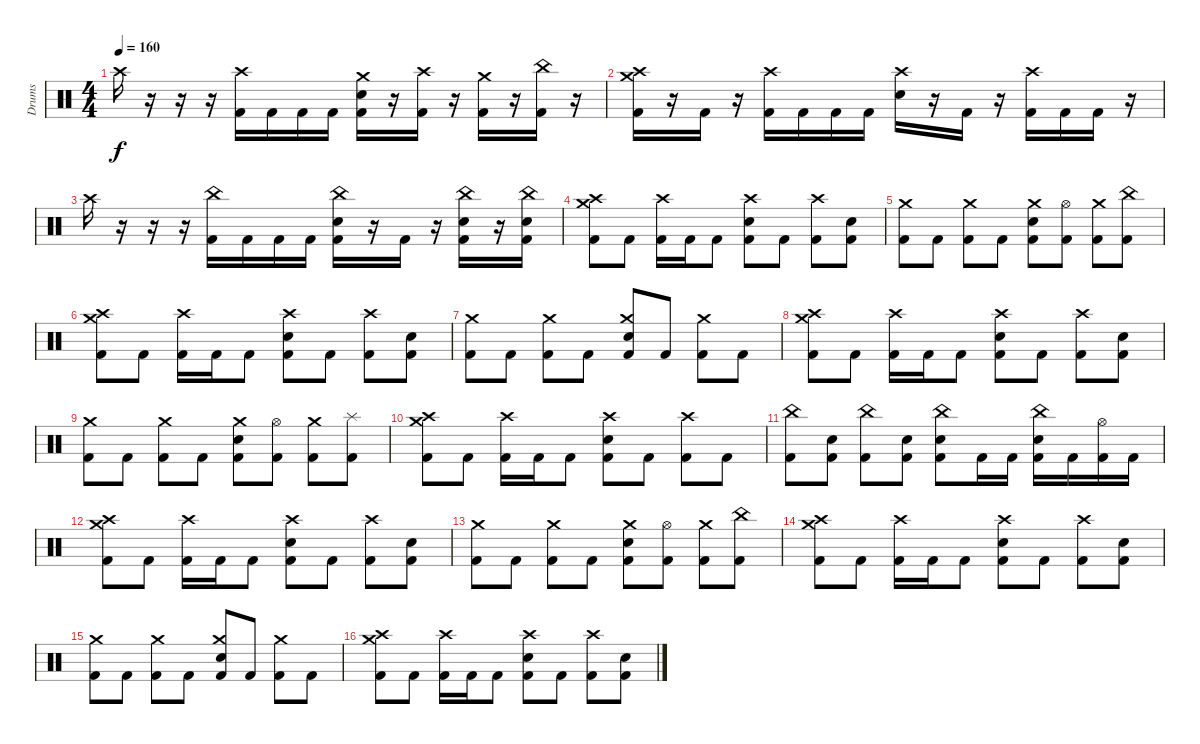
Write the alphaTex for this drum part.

\track ("Drums" "Drums") {instrument percussion}
\staff {score}
\articulation defaults
\ts (4 4)
\tempo 160
\clef neutral
\ks c "Crash high (hit)".16{dy f}
r.16 r.16 r.16 ("Crash high (hit)" "Kick (hit) 2").16 "Kick (hit) 2".16 "Kick (hit) 2".16 "Kick (hit) 2".16 ("Crash medium (hit)" "Electric Snare (hit)" "Kick (hit) 2").16 r.16 ("Crash high (hit)" "Kick (hit) 2").16 r.16 ("Crash medium (hit)" "Kick (hit) 2").16 r.16 ("China (hit)" "Kick (hit) 2").16 r.16 |
("Crash high (hit)" "Crash medium (hit)" "Kick (hit) 2").16 r.16 "Kick (hit) 2".16 r.16 ("Crash high (hit)" "Kick (hit) 2").16 "Kick (hit) 2".16 "Kick (hit) 2".16 "Kick (hit) 2".16 ("Crash high (hit)" "Electric Snare (hit)").16 r.16 "Kick (hit) 2".16 r.16 ("Crash high (hit)" "Kick (hit) 2").16 "Kick (hit) 2".16 "Kick (hit) 2".16 r.16 |
"Crash high (hit)".16 r.16 r.16 r.16 ("China (hit)" "Kick (hit) 2").16 "Kick (hit) 2".16 "Kick (hit) 2".16 "Kick (hit) 2".16 ("China (hit)" "Electric Snare (hit)" "Kick (hit) 2").16 r.16 "Kick (hit) 2".16 r.16 ("China (hit)" "Electric Snare (hit)" "Kick (hit) 2").16 r.16 ("China (hit)" "Electric Snare (hit)" "Kick (hit) 2").16 |
("Crash high (hit)" "Crash medium (hit)" "Kick (hit) 2").8 "Kick (hit) 2".8 ("Crash high (hit)" "Kick (hit) 2").16 "Kick (hit) 2".16 "Kick (hit) 2".8 ("Crash high (hit)" "Electric Snare (hit)" "Kick (hit) 2").8 "Kick (hit) 2".8 ("Crash high (hit)" "Kick (hit) 2").8 ("Electric Snare (hit)" "Kick (hit) 2").8 |
("Crash medium (hit)" "Kick (hit) 2").8 "Kick (hit) 2".8 ("Crash medium (hit)" "Kick (hit) 2").8 "Kick (hit) 2".8 ("Crash medium (hit)" "Electric Snare (hit)" "Kick (hit) 2").8 ("Hi-Hat (open)" "Kick (hit) 2").8 ("Crash medium (hit)" "Kick (hit) 2").8 ("China (hit)" "Kick (hit) 2").8 |
("Crash high (hit)" "Crash medium (hit)" "Kick (hit) 2").8 "Kick (hit) 2".8 ("Crash high (hit)" "Kick (hit) 2").16 "Kick (hit) 2".16 "Kick (hit) 2".8 ("Crash high (hit)" "Electric Snare (hit)" "Kick (hit) 2").8 "Kick (hit) 2".8 ("Crash high (hit)" "Kick (hit) 2").8 ("Electric Snare (hit)" "Kick (hit) 2").8 |
("Crash medium (hit)" "Kick (hit) 2").8 "Kick (hit) 2".8 ("Crash medium (hit)" "Kick (hit) 2").8 "Kick (hit) 2".8 ("Crash medium (hit)" "Electric Snare (hit)" "Kick (hit) 2").8 "Kick (hit) 2".8 ("Crash medium (hit)" "Kick (hit) 2").8 "Kick (hit) 2".8 |
("Crash high (hit)" "Crash medium (hit)" "Kick (hit) 2").8 "Kick (hit) 2".8 ("Crash high (hit)" "Kick (hit) 2").16 "Kick (hit) 2".16 "Kick (hit) 2".8 ("Crash high (hit)" "Electric Snare (hit)" "Kick (hit) 2").8 "Kick (hit) 2".8 ("Crash high (hit)" "Kick (hit) 2").8 ("Electric Snare (hit)" "Kick (hit) 2").8 |
("Crash medium (hit)" "Kick (hit) 2").8 "Kick (hit) 2".8 ("Crash medium (hit)" "Kick (hit) 2").8 "Kick (hit) 2".8 ("Crash medium (hit)" "Electric Snare (hit)" "Kick (hit) 2").8 ("Hi-Hat (open)" "Kick (hit) 2").8 ("Crash medium (hit)" "Kick (hit) 2").8 ("Splash (hit)" "Kick (hit) 2").8 |
("Crash high (hit)" "Crash medium (hit)" "Kick (hit) 2").8 "Kick (hit) 2".8 ("Crash high (hit)" "Kick (hit) 2").16 "Kick (hit) 2".16 "Kick (hit) 2".8 ("Crash high (hit)" "Electric Snare (hit)" "Kick (hit) 2").8 "Kick (hit) 2".8 ("Crash high (hit)" "Kick (hit) 2").8 "Kick (hit) 2".8 |
("China (hit)" "Kick (hit) 2").8 ("Electric Snare (hit)" "Kick (hit) 2").8 ("China (hit)" "Kick (hit) 2").8 ("Electric Snare (hit)" "Kick (hit) 2").8 ("China (hit)" "Electric Snare (hit)" "Kick (hit) 2").8 "Kick (hit) 2".16 "Kick (hit) 2".16 ("China (hit)" "Electric Snare (hit)" "Kick (hit) 2").16 "Kick (hit) 2".16 ("Hi-Hat (open)" "Kick (hit) 2").16 "Kick (hit) 2".16 |
("Crash high (hit)" "Crash medium (hit)" "Kick (hit) 2").8 "Kick (hit) 2".8 ("Crash high (hit)" "Kick (hit) 2").16 "Kick (hit) 2".16 "Kick (hit) 2".8 ("Crash high (hit)" "Electric Snare (hit)" "Kick (hit) 2").8 "Kick (hit) 2".8 ("Crash high (hit)" "Kick (hit) 2").8 ("Electric Snare (hit)" "Kick (hit) 2").8 |
("Crash medium (hit)" "Kick (hit) 2").8 "Kick (hit) 2".8 ("Crash medium (hit)" "Kick (hit) 2").8 "Kick (hit) 2".8 ("Crash medium (hit)" "Electric Snare (hit)" "Kick (hit) 2").8 ("Hi-Hat (open)" "Kick (hit) 2").8 ("Crash medium (hit)" "Kick (hit) 2").8 ("China (hit)" "Kick (hit) 2").8 |
("Crash high (hit)" "Crash medium (hit)" "Kick (hit) 2").8 "Kick (hit) 2".8 ("Crash high (hit)" "Kick (hit) 2").16 "Kick (hit) 2".16 "Kick (hit) 2".8 ("Crash high (hit)" "Electric Snare (hit)" "Kick (hit) 2").8 "Kick (hit) 2".8 ("Crash high (hit)" "Kick (hit) 2").8 ("Electric Snare (hit)" "Kick (hit) 2").8 |
("Crash medium (hit)" "Kick (hit) 2").8 "Kick (hit) 2".8 ("Crash medium (hit)" "Kick (hit) 2").8 "Kick (hit) 2".8 ("Crash medium (hit)" "Electric Snare (hit)" "Kick (hit) 2").8 "Kick (hit) 2".8 ("Crash medium (hit)" "Kick (hit) 2").8 "Kick (hit) 2".8 |
("Crash high (hit)" "Crash medium (hit)" "Kick (hit) 2").8 "Kick (hit) 2".8 ("Crash high (hit)" "Kick (hit) 2").16 "Kick (hit) 2".16 "Kick (hit) 2".8 ("Crash high (hit)" "Electric Snare (hit)" "Kick (hit) 2").8 "Kick (hit) 2".8 ("Crash high (hit)" "Kick (hit) 2").8 ("Electric Snare (hit)" "Kick (hit) 2").8
